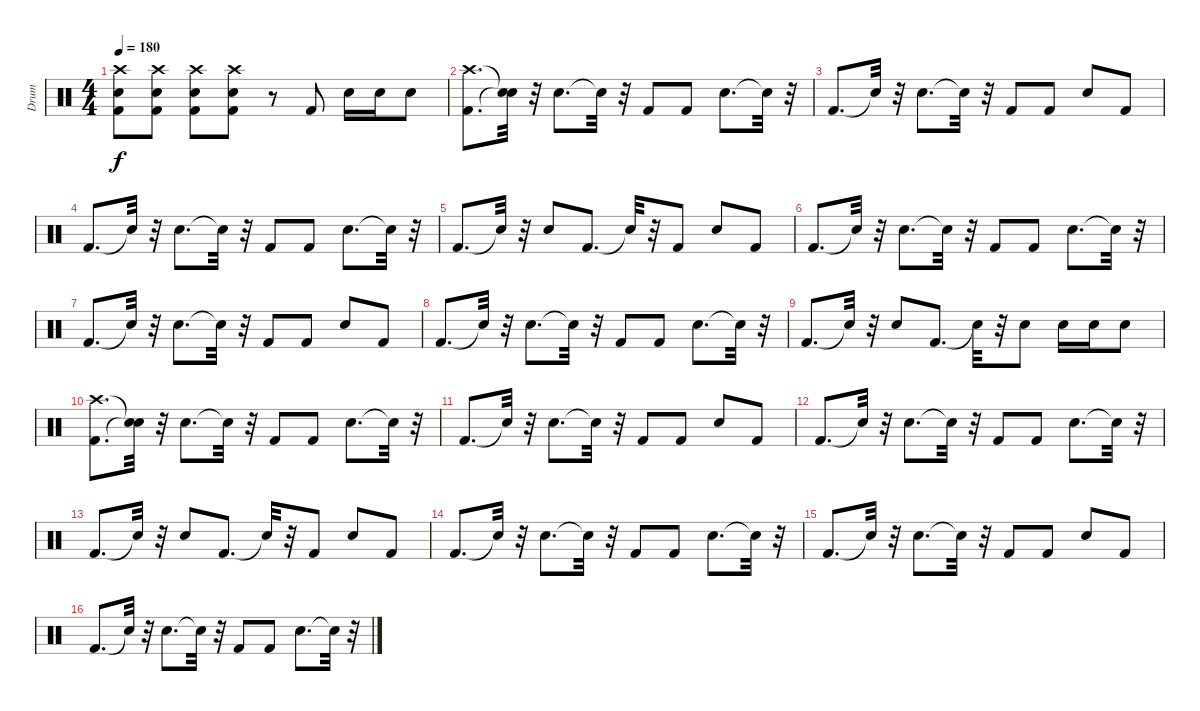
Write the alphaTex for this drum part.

\track ("Drum" "Drum") {instrument percussion}
\staff {score}
\articulation defaults
\ts (4 4)
\tempo 180
\clef neutral
\ks c
("Crash high (hit)" "Kick (hit) 2" "Snare (hit) 2").8{dy f} ("Crash high (hit)" "Kick (hit) 2" "Snare (hit) 2").8 ("Crash high (hit)" "Kick (hit) 2" "Snare (hit) 2").8 ("Crash high (hit)" "Kick (hit) 2" "Snare (hit) 2").8 r.8 "Kick (hit) 2".8 "Snare (hit) 2".16 "Snare (hit) 2".16 "Snare (hit) 2".8 |
("Crash high (hit)" "Kick (hit) 2").8{d} ("Snare (hit)"{t} "Snare (hit)"{t}).32 r.32 "Snare (hit) 2".8{d} "Snare (hit)"{t}.32 r.32 "Kick (hit) 2".8 "Kick (hit) 2".8 "Snare (hit) 2".8{d} "Snare (hit)"{t}.32 r.32 |
"Kick (hit) 2".8{d} "Snare (hit)"{t}.32 r.32 "Snare (hit) 2".8{d} "Snare (hit)"{t}.32 r.32 "Kick (hit) 2".8 "Kick (hit) 2".8 "Snare (hit) 2".8 "Kick (hit) 2".8 |
"Kick (hit) 2".8{d} "Snare (hit)"{t}.32 r.32 "Snare (hit) 2".8{d} "Snare (hit)"{t}.32 r.32 "Kick (hit) 2".8 "Kick (hit) 2".8 "Snare (hit) 2".8{d} "Snare (hit)"{t}.32 r.32 |
"Kick (hit) 2".8{d} "Snare (hit)"{t}.32 r.32 "Snare (hit) 2".8 "Kick (hit) 2".8{d} "Snare (hit)"{t}.32 r.32 "Kick (hit) 2".8 "Snare (hit) 2".8 "Kick (hit) 2".8 |
"Kick (hit) 2".8{d} "Snare (hit)"{t}.32 r.32 "Snare (hit) 2".8{d} "Snare (hit)"{t}.32 r.32 "Kick (hit) 2".8 "Kick (hit) 2".8 "Snare (hit) 2".8{d} "Snare (hit)"{t}.32 r.32 |
"Kick (hit) 2".8{d} "Snare (hit)"{t}.32 r.32 "Snare (hit) 2".8{d} "Snare (hit)"{t}.32 r.32 "Kick (hit) 2".8 "Kick (hit) 2".8 "Snare (hit) 2".8 "Kick (hit) 2".8 |
"Kick (hit) 2".8{d} "Snare (hit)"{t}.32 r.32 "Snare (hit) 2".8{d} "Snare (hit)"{t}.32 r.32 "Kick (hit) 2".8 "Kick (hit) 2".8 "Snare (hit) 2".8{d} "Snare (hit)"{t}.32 r.32 |
"Kick (hit) 2".8{d} "Snare (hit)"{t}.32 r.32 "Snare (hit) 2".8 "Kick (hit) 2".8{d} "Snare (hit)"{t}.32 r.32 "Snare (hit) 2".8 "Snare (hit) 2".16 "Snare (hit) 2".16 "Snare (hit) 2".8 |
("Crash high (hit)" "Kick (hit) 2").8{d} ("Snare (hit)"{t} "Snare (hit)"{t}).32 r.32 "Snare (hit) 2".8{d} "Snare (hit)"{t}.32 r.32 "Kick (hit) 2".8 "Kick (hit) 2".8 "Snare (hit) 2".8{d} "Snare (hit)"{t}.32 r.32 |
"Kick (hit) 2".8{d} "Snare (hit)"{t}.32 r.32 "Snare (hit) 2".8{d} "Snare (hit)"{t}.32 r.32 "Kick (hit) 2".8 "Kick (hit) 2".8 "Snare (hit) 2".8 "Kick (hit) 2".8 |
"Kick (hit) 2".8{d} "Snare (hit)"{t}.32 r.32 "Snare (hit) 2".8{d} "Snare (hit)"{t}.32 r.32 "Kick (hit) 2".8 "Kick (hit) 2".8 "Snare (hit) 2".8{d} "Snare (hit)"{t}.32 r.32 |
"Kick (hit) 2".8{d} "Snare (hit)"{t}.32 r.32 "Snare (hit) 2".8 "Kick (hit) 2".8{d} "Snare (hit)"{t}.32 r.32 "Kick (hit) 2".8 "Snare (hit) 2".8 "Kick (hit) 2".8 |
"Kick (hit) 2".8{d} "Snare (hit)"{t}.32 r.32 "Snare (hit) 2".8{d} "Snare (hit)"{t}.32 r.32 "Kick (hit) 2".8 "Kick (hit) 2".8 "Snare (hit) 2".8{d} "Snare (hit)"{t}.32 r.32 |
"Kick (hit) 2".8{d} "Snare (hit)"{t}.32 r.32 "Snare (hit) 2".8{d} "Snare (hit)"{t}.32 r.32 "Kick (hit) 2".8 "Kick (hit) 2".8 "Snare (hit) 2".8 "Kick (hit) 2".8 |
"Kick (hit) 2".8{d} "Snare (hit)"{t}.32 r.32 "Snare (hit) 2".8{d} "Snare (hit)"{t}.32 r.32 "Kick (hit) 2".8 "Kick (hit) 2".8 "Snare (hit) 2".8{d} "Snare (hit)"{t}.32 r.32
